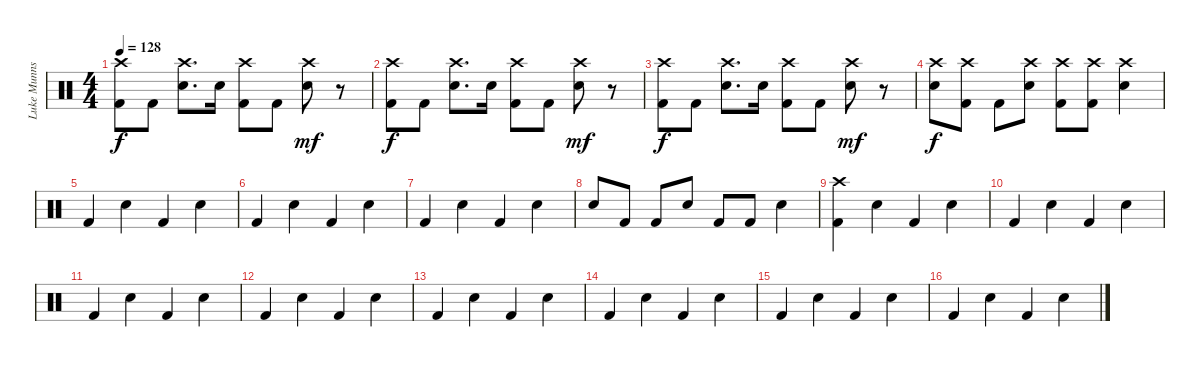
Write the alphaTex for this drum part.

\track ("Luke Munns" "Luke Munns") {instrument percussion}
\staff {score}
\articulation defaults
\ts (4 4)
\tempo 128
\clef neutral
\ks c
("Kick (hit) 2" "Crash high (hit)").8{dy f} "Kick (hit) 2".8 ("Electric Snare (hit)" "Crash high (hit)").8{d} "Electric Snare (hit)".16 ("Kick (hit) 2" "Crash high (hit)").8 "Kick (hit) 2".8 ("Electric Snare (hit)" "Crash high (hit)").8{dy mf} r.8 |
("Kick (hit) 2" "Crash high (hit)").8{dy f} "Kick (hit) 2".8 ("Electric Snare (hit)" "Crash high (hit)").8{d} "Electric Snare (hit)".16 ("Kick (hit) 2" "Crash high (hit)").8 "Kick (hit) 2".8 ("Electric Snare (hit)" "Crash high (hit)").8{dy mf} r.8 |
("Kick (hit) 2" "Crash high (hit)").8{dy f} "Kick (hit) 2".8 ("Electric Snare (hit)" "Crash high (hit)").8{d} "Electric Snare (hit)".16 ("Kick (hit) 2" "Crash high (hit)").8 "Kick (hit) 2".8 ("Electric Snare (hit)" "Crash high (hit)").8{dy mf} r.8 |
("Electric Snare (hit)" "Crash high (hit)").8{dy f} ("Kick (hit) 2" "Crash high (hit)").8 "Kick (hit) 2".8 ("Electric Snare (hit)" "Crash high (hit)").8 ("Kick (hit) 2" "Crash high (hit)").8 ("Kick (hit) 2" "Crash high (hit)").8 ("Electric Snare (hit)" "Crash high (hit)").4 |
"Kick (hit) 2".4 "Electric Snare (hit)".4 "Kick (hit) 2".4 "Electric Snare (hit)".4 |
"Kick (hit) 2".4 "Electric Snare (hit)".4 "Kick (hit) 2".4 "Electric Snare (hit)".4 |
"Kick (hit) 2".4 "Electric Snare (hit)".4 "Kick (hit) 2".4 "Electric Snare (hit)".4 |
"Electric Snare (hit)".8 "Kick (hit) 2".8 "Kick (hit) 2".8 "Electric Snare (hit)".8 "Kick (hit) 2".8 "Kick (hit) 2".8 "Electric Snare (hit)".4 |
("Kick (hit) 2" "Crash high (hit)").4 "Electric Snare (hit)".4 "Kick (hit) 2".4 "Electric Snare (hit)".4 |
"Kick (hit) 2".4 "Electric Snare (hit)".4 "Kick (hit) 2".4 "Electric Snare (hit)".4 |
"Kick (hit) 2".4 "Electric Snare (hit)".4 "Kick (hit) 2".4 "Electric Snare (hit)".4 |
"Kick (hit) 2".4 "Electric Snare (hit)".4 "Kick (hit) 2".4 "Electric Snare (hit)".4 |
"Kick (hit) 2".4 "Electric Snare (hit)".4 "Kick (hit) 2".4 "Electric Snare (hit)".4 |
"Kick (hit) 2".4 "Electric Snare (hit)".4 "Kick (hit) 2".4 "Electric Snare (hit)".4 |
"Kick (hit) 2".4 "Electric Snare (hit)".4 "Kick (hit) 2".4 "Electric Snare (hit)".4 |
"Kick (hit) 2".4 "Electric Snare (hit)".4 "Kick (hit) 2".4 "Electric Snare (hit)".4
